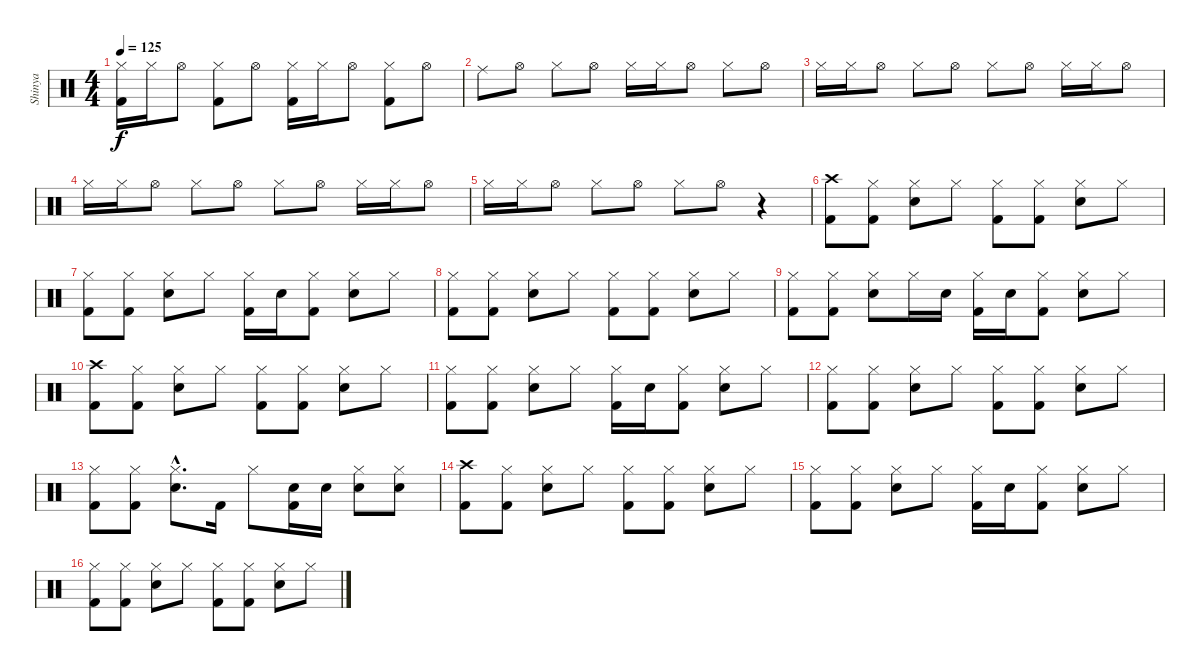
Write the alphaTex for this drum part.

\track ("Shinya" "Shinya") {instrument percussion}
\staff {score}
\articulation defaults
\ts (4 4)
\tempo 125
\clef neutral
\ks c
("Hi-Hat (closed)" "Kick (hit) 2").16{dy f} "Hi-Hat (closed)".16 "Hi-Hat (open)".8 ("Hi-Hat (closed)" "Kick (hit) 2").8 "Hi-Hat (open)".8 ("Hi-Hat (closed)" "Kick (hit) 2").16 "Hi-Hat (closed)".16 "Hi-Hat (open)".8 ("Hi-Hat (closed)" "Kick (hit) 2").8 "Hi-Hat (open)".8 |
"Ride (middle)".8 "Hi-Hat (open)".8 "Hi-Hat (closed)".8 "Hi-Hat (open)".8 "Hi-Hat (closed)".16 "Hi-Hat (closed)".16 "Hi-Hat (open)".8 "Hi-Hat (closed)".8 "Hi-Hat (open)".8 |
"Hi-Hat (closed)".16 "Hi-Hat (closed)".16 "Hi-Hat (open)".8 "Hi-Hat (closed)".8 "Hi-Hat (open)".8 "Hi-Hat (closed)".8 "Hi-Hat (open)".8 "Hi-Hat (closed)".16 "Hi-Hat (closed)".16 "Hi-Hat (open)".8 |
"Hi-Hat (closed)".16 "Hi-Hat (closed)".16 "Hi-Hat (open)".8 "Hi-Hat (closed)".8 "Hi-Hat (open)".8 "Hi-Hat (closed)".8 "Hi-Hat (open)".8 "Hi-Hat (closed)".16 "Hi-Hat (closed)".16 "Hi-Hat (open)".8 |
"Hi-Hat (closed)".16 "Hi-Hat (closed)".16 "Hi-Hat (open)".8 "Hi-Hat (closed)".8 "Hi-Hat (open)".8 "Hi-Hat (closed)".8 "Hi-Hat (open)".8 r.4 |
("Crash high (hit)" "Kick (hit) 2").8 ("Hi-Hat (closed)" "Kick (hit) 2").8 ("Hi-Hat (closed)" "Snare (hit) 2").8 "Hi-Hat (closed)".8 ("Hi-Hat (closed)" "Kick (hit) 2").8 ("Hi-Hat (closed)" "Kick (hit) 2").8 ("Hi-Hat (closed)" "Snare (hit) 2").8 "Hi-Hat (closed)".8 |
("Hi-Hat (closed)" "Kick (hit) 2").8 ("Hi-Hat (closed)" "Kick (hit) 2").8 ("Hi-Hat (closed)" "Snare (hit) 2").8 "Hi-Hat (closed)".8 ("Hi-Hat (closed)" "Kick (hit) 2").16 "Snare (hit) 2".16 ("Hi-Hat (closed)" "Kick (hit) 2").8 ("Hi-Hat (closed)" "Snare (hit) 2").8 "Hi-Hat (closed)".8 |
("Hi-Hat (closed)" "Kick (hit) 2").8 ("Hi-Hat (closed)" "Kick (hit) 2").8 ("Hi-Hat (closed)" "Snare (hit) 2").8 "Hi-Hat (closed)".8 ("Hi-Hat (closed)" "Kick (hit) 2").8 ("Hi-Hat (closed)" "Kick (hit) 2").8 ("Hi-Hat (closed)" "Snare (hit) 2").8 "Hi-Hat (closed)".8 |
("Hi-Hat (closed)" "Kick (hit) 2").8 ("Hi-Hat (closed)" "Kick (hit) 2").8 ("Hi-Hat (closed)" "Snare (hit) 2").8 "Hi-Hat (closed)".16 "Snare (hit) 2".16 ("Hi-Hat (closed)" "Kick (hit) 2").16 "Snare (hit) 2".16 ("Hi-Hat (closed)" "Kick (hit) 2").8 ("Hi-Hat (closed)" "Snare (hit) 2").8 "Hi-Hat (closed)".8 |
("Crash high (hit)" "Kick (hit) 2").8 ("Hi-Hat (closed)" "Kick (hit) 2").8 ("Hi-Hat (closed)" "Snare (hit) 2").8 "Hi-Hat (closed)".8 ("Hi-Hat (closed)" "Kick (hit) 2").8 ("Hi-Hat (closed)" "Kick (hit) 2").8 ("Hi-Hat (closed)" "Snare (hit) 2").8 "Hi-Hat (closed)".8 |
("Hi-Hat (closed)" "Kick (hit) 2").8 ("Hi-Hat (closed)" "Kick (hit) 2").8 ("Hi-Hat (closed)" "Snare (hit) 2").8 "Hi-Hat (closed)".8 ("Hi-Hat (closed)" "Kick (hit) 2").16 "Snare (hit) 2".16 ("Hi-Hat (closed)" "Kick (hit) 2").8 ("Hi-Hat (closed)" "Snare (hit) 2").8 "Hi-Hat (closed)".8 |
("Hi-Hat (closed)" "Kick (hit) 2").8 ("Hi-Hat (closed)" "Kick (hit) 2").8 ("Hi-Hat (closed)" "Snare (hit) 2").8 "Hi-Hat (closed)".8 ("Hi-Hat (closed)" "Kick (hit) 2").8 ("Hi-Hat (closed)" "Kick (hit) 2").8 ("Hi-Hat (closed)" "Snare (hit) 2").8 "Hi-Hat (closed)".8 |
("Hi-Hat (closed)" "Kick (hit) 2").8 ("Hi-Hat (closed)" "Kick (hit) 2").8 ("Hi-Hat (closed)"{hac} "Snare (hit) 2"{hac}).8{d} "Kick (hit) 2".16 "Hi-Hat (closed)".8 ("Snare (hit) 2" "Kick (hit) 2").16 "Snare (hit) 2".16 ("Hi-Hat (closed)" "Snare (hit) 2").8 ("Hi-Hat (closed)" "Snare (hit) 2").8 |
("Crash high (hit)" "Kick (hit) 2").8 ("Hi-Hat (closed)" "Kick (hit) 2").8 ("Hi-Hat (closed)" "Snare (hit) 2").8 "Hi-Hat (closed)".8 ("Hi-Hat (closed)" "Kick (hit) 2").8 ("Hi-Hat (closed)" "Kick (hit) 2").8 ("Hi-Hat (closed)" "Snare (hit) 2").8 "Hi-Hat (closed)".8 |
("Hi-Hat (closed)" "Kick (hit) 2").8 ("Hi-Hat (closed)" "Kick (hit) 2").8 ("Hi-Hat (closed)" "Snare (hit) 2").8 "Hi-Hat (closed)".8 ("Hi-Hat (closed)" "Kick (hit) 2").16 "Snare (hit) 2".16 ("Hi-Hat (closed)" "Kick (hit) 2").8 ("Hi-Hat (closed)" "Snare (hit) 2").8 "Hi-Hat (closed)".8 |
("Hi-Hat (closed)" "Kick (hit) 2").8 ("Hi-Hat (closed)" "Kick (hit) 2").8 ("Hi-Hat (closed)" "Snare (hit) 2").8 "Hi-Hat (closed)".8 ("Hi-Hat (closed)" "Kick (hit) 2").8 ("Hi-Hat (closed)" "Kick (hit) 2").8 ("Hi-Hat (closed)" "Snare (hit) 2").8 "Hi-Hat (closed)".8
